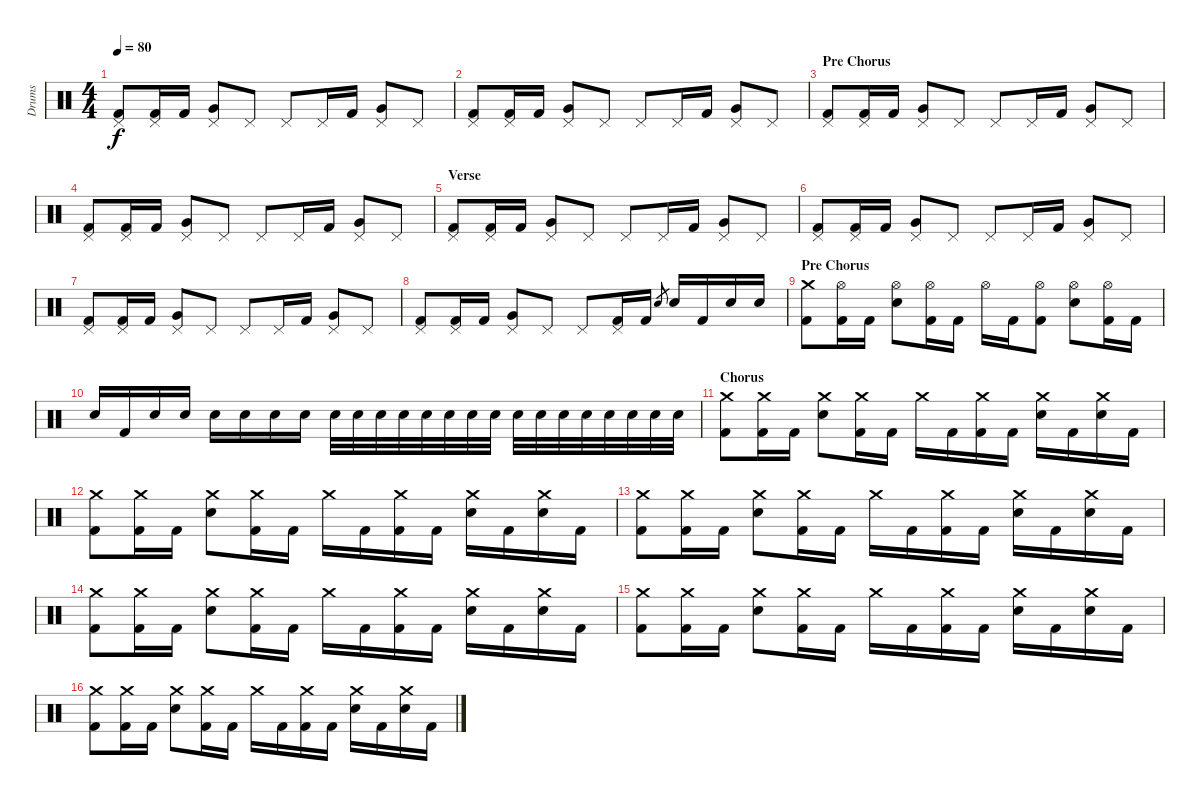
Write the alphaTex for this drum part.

\track ("Drums" "Drums") {instrument percussion}
\staff {score}
\articulation defaults
\ts (4 4)
\tempo 80
\clef neutral
\ks c
("Pedal Hi-Hat (hit)" "Kick (hit) 2").8{dy f} ("Pedal Hi-Hat (hit)" "Kick (hit) 2").16 "Kick (hit) 2".16 ("Pedal Hi-Hat (hit)" "Very Low Tom (hit)").8 "Pedal Hi-Hat (hit)".8 "Pedal Hi-Hat (hit)".8 "Pedal Hi-Hat (hit)".16 "Kick (hit) 2".16 ("Pedal Hi-Hat (hit)" "Very Low Tom (hit)").8 "Pedal Hi-Hat (hit)".8 |
("Pedal Hi-Hat (hit)" "Kick (hit) 2").8 ("Pedal Hi-Hat (hit)" "Kick (hit) 2").16 "Kick (hit) 2".16 ("Pedal Hi-Hat (hit)" "Very Low Tom (hit)").8 "Pedal Hi-Hat (hit)".8 "Pedal Hi-Hat (hit)".8 "Pedal Hi-Hat (hit)".16 "Kick (hit) 2".16 ("Pedal Hi-Hat (hit)" "Very Low Tom (hit)").8 "Pedal Hi-Hat (hit)".8 |
\section ("" "Pre Chorus")
("Pedal Hi-Hat (hit)" "Kick (hit) 2").8 ("Pedal Hi-Hat (hit)" "Kick (hit) 2").16 "Kick (hit) 2".16 ("Pedal Hi-Hat (hit)" "Very Low Tom (hit)").8 "Pedal Hi-Hat (hit)".8 "Pedal Hi-Hat (hit)".8 "Pedal Hi-Hat (hit)".16 "Kick (hit) 2".16 ("Pedal Hi-Hat (hit)" "Very Low Tom (hit)").8 "Pedal Hi-Hat (hit)".8 |
("Pedal Hi-Hat (hit)" "Kick (hit) 2").8 ("Pedal Hi-Hat (hit)" "Kick (hit) 2").16 "Kick (hit) 2".16 ("Pedal Hi-Hat (hit)" "Very Low Tom (hit)").8 "Pedal Hi-Hat (hit)".8 "Pedal Hi-Hat (hit)".8 "Pedal Hi-Hat (hit)".16 "Kick (hit) 2".16 ("Pedal Hi-Hat (hit)" "Very Low Tom (hit)").8 "Pedal Hi-Hat (hit)".8 |
\section ("" "Verse")
("Pedal Hi-Hat (hit)" "Kick (hit) 2").8 ("Pedal Hi-Hat (hit)" "Kick (hit) 2").16 "Kick (hit) 2".16 ("Pedal Hi-Hat (hit)" "Very Low Tom (hit)").8 "Pedal Hi-Hat (hit)".8 "Pedal Hi-Hat (hit)".8 "Pedal Hi-Hat (hit)".16 "Kick (hit) 2".16 ("Pedal Hi-Hat (hit)" "Very Low Tom (hit)").8 "Pedal Hi-Hat (hit)".8 |
("Pedal Hi-Hat (hit)" "Kick (hit) 2").8 ("Pedal Hi-Hat (hit)" "Kick (hit) 2").16 "Kick (hit) 2".16 ("Pedal Hi-Hat (hit)" "Very Low Tom (hit)").8 "Pedal Hi-Hat (hit)".8 "Pedal Hi-Hat (hit)".8 "Pedal Hi-Hat (hit)".16 "Kick (hit) 2".16 ("Pedal Hi-Hat (hit)" "Very Low Tom (hit)").8 "Pedal Hi-Hat (hit)".8 |
("Pedal Hi-Hat (hit)" "Kick (hit) 2").8 ("Pedal Hi-Hat (hit)" "Kick (hit) 2").16 "Kick (hit) 2".16 ("Pedal Hi-Hat (hit)" "Very Low Tom (hit)").8 "Pedal Hi-Hat (hit)".8 "Pedal Hi-Hat (hit)".8 "Pedal Hi-Hat (hit)".16 "Kick (hit) 2".16 ("Pedal Hi-Hat (hit)" "Very Low Tom (hit)").8 "Pedal Hi-Hat (hit)".8 |
("Pedal Hi-Hat (hit)" "Kick (hit) 2").8 ("Pedal Hi-Hat (hit)" "Kick (hit) 2").16 "Kick (hit) 2".16 ("Pedal Hi-Hat (hit)" "Very Low Tom (hit)").8 "Pedal Hi-Hat (hit)".8 "Pedal Hi-Hat (hit)".8 ("Pedal Hi-Hat (hit)" "Kick (hit) 2").16 "Kick (hit) 2".16 "Electric Snare (hit)".8{gr} "Electric Snare (hit)".16 "Kick (hit) 2".16 "Electric Snare (hit)".16 "Electric Snare (hit)".16 |
\section ("" "Pre Chorus")
("Crash medium (hit)" "Kick (hit) 2").8 ("Hi-Hat (open)" "Kick (hit) 2").16 "Kick (hit) 2".16 ("Hi-Hat (open)" "Electric Snare (hit)").8 ("Hi-Hat (open)" "Kick (hit) 2").16 "Kick (hit) 2".16 "Hi-Hat (open)".16 "Kick (hit) 2".16 ("Hi-Hat (open)" "Kick (hit) 2").8 ("Hi-Hat (open)" "Electric Snare (hit)").8 ("Hi-Hat (open)" "Kick (hit) 2").16 "Kick (hit) 2".16 |
"Electric Snare (hit)".16 "Kick (hit) 2".16 "Electric Snare (hit)".16 "Electric Snare (hit)".16 "Electric Snare (hit)".16 "Electric Snare (hit)".16 "Electric Snare (hit)".16 "Electric Snare (hit)".16 "Electric Snare (hit)".32 "Electric Snare (hit)".32 "Electric Snare (hit)".32 "Electric Snare (hit)".32 "Electric Snare (hit)".32 "Electric Snare (hit)".32 "Electric Snare (hit)".32 "Electric Snare (hit)".32 "Electric Snare (hit)".32 "Electric Snare (hit)".32 "Electric Snare (hit)".32 "Electric Snare (hit)".32 "Electric Snare (hit)".32 "Electric Snare (hit)".32 "Electric Snare (hit)".32 "Electric Snare (hit)".32 |
\section ("" "Chorus")
("Crash medium (hit)" "Kick (hit) 2").8 ("Crash medium (hit)" "Kick (hit) 2").16 "Kick (hit) 2".16 ("Crash medium (hit)" "Electric Snare (hit)").8 ("Crash medium (hit)" "Kick (hit) 2").16 "Kick (hit) 2".16 "Crash medium (hit)".16 "Kick (hit) 2".16 ("Crash medium (hit)" "Kick (hit) 2").16 "Kick (hit) 2".16 ("Crash medium (hit)" "Electric Snare (hit)").16 "Kick (hit) 2".16 ("Crash medium (hit)" "Electric Snare (hit)").16 "Kick (hit) 2".16 |
("Crash medium (hit)" "Kick (hit) 2").8 ("Crash medium (hit)" "Kick (hit) 2").16 "Kick (hit) 2".16 ("Crash medium (hit)" "Electric Snare (hit)").8 ("Crash medium (hit)" "Kick (hit) 2").16 "Kick (hit) 2".16 "Crash medium (hit)".16 "Kick (hit) 2".16 ("Crash medium (hit)" "Kick (hit) 2").16 "Kick (hit) 2".16 ("Crash medium (hit)" "Electric Snare (hit)").16 "Kick (hit) 2".16 ("Crash medium (hit)" "Electric Snare (hit)").16 "Kick (hit) 2".16 |
("Crash medium (hit)" "Kick (hit) 2").8 ("Crash medium (hit)" "Kick (hit) 2").16 "Kick (hit) 2".16 ("Crash medium (hit)" "Electric Snare (hit)").8 ("Crash medium (hit)" "Kick (hit) 2").16 "Kick (hit) 2".16 "Crash medium (hit)".16 "Kick (hit) 2".16 ("Crash medium (hit)" "Kick (hit) 2").16 "Kick (hit) 2".16 ("Crash medium (hit)" "Electric Snare (hit)").16 "Kick (hit) 2".16 ("Crash medium (hit)" "Electric Snare (hit)").16 "Kick (hit) 2".16 |
("Crash medium (hit)" "Kick (hit) 2").8 ("Crash medium (hit)" "Kick (hit) 2").16 "Kick (hit) 2".16 ("Crash medium (hit)" "Electric Snare (hit)").8 ("Crash medium (hit)" "Kick (hit) 2").16 "Kick (hit) 2".16 "Crash medium (hit)".16 "Kick (hit) 2".16 ("Crash medium (hit)" "Kick (hit) 2").16 "Kick (hit) 2".16 ("Crash medium (hit)" "Electric Snare (hit)").16 "Kick (hit) 2".16 ("Crash medium (hit)" "Electric Snare (hit)").16 "Kick (hit) 2".16 |
("Crash medium (hit)" "Kick (hit) 2").8 ("Crash medium (hit)" "Kick (hit) 2").16 "Kick (hit) 2".16 ("Crash medium (hit)" "Electric Snare (hit)").8 ("Crash medium (hit)" "Kick (hit) 2").16 "Kick (hit) 2".16 "Crash medium (hit)".16 "Kick (hit) 2".16 ("Crash medium (hit)" "Kick (hit) 2").16 "Kick (hit) 2".16 ("Crash medium (hit)" "Electric Snare (hit)").16 "Kick (hit) 2".16 ("Crash medium (hit)" "Electric Snare (hit)").16 "Kick (hit) 2".16 |
("Crash medium (hit)" "Kick (hit) 2").8 ("Crash medium (hit)" "Kick (hit) 2").16 "Kick (hit) 2".16 ("Crash medium (hit)" "Electric Snare (hit)").8 ("Crash medium (hit)" "Kick (hit) 2").16 "Kick (hit) 2".16 "Crash medium (hit)".16 "Kick (hit) 2".16 ("Crash medium (hit)" "Kick (hit) 2").16 "Kick (hit) 2".16 ("Crash medium (hit)" "Electric Snare (hit)").16 "Kick (hit) 2".16 ("Crash medium (hit)" "Electric Snare (hit)").16 "Kick (hit) 2".16
